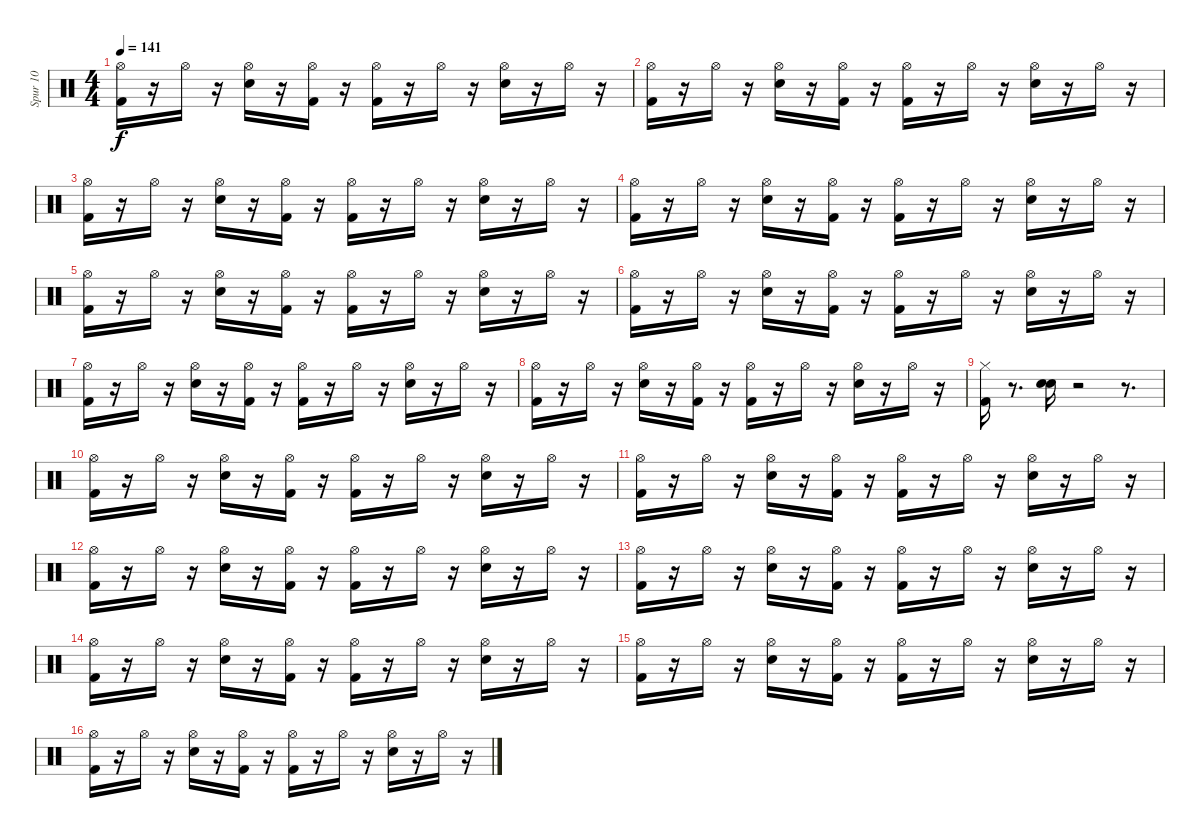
\track ("Spur 10" "Spur 10") {instrument percussion}
\staff {score}
\articulation defaults
\ts (4 4)
\tempo 141
\clef neutral
\ks c
("Kick (hit) 2" "Hi-Hat (open)").16{dy f} r.16 "Hi-Hat (open)".16 r.16 ("Snare (hit) 2" "Hi-Hat (open)").16 r.16 ("Kick (hit) 2" "Hi-Hat (open)").16 r.16 ("Kick (hit) 2" "Hi-Hat (open)").16 r.16 "Hi-Hat (open)".16 r.16 ("Snare (hit) 2" "Hi-Hat (open)").16 r.16 "Hi-Hat (open)".16 r.16 |
("Kick (hit) 2" "Hi-Hat (open)").16 r.16 "Hi-Hat (open)".16 r.16 ("Snare (hit) 2" "Hi-Hat (open)").16 r.16 ("Kick (hit) 2" "Hi-Hat (open)").16 r.16 ("Kick (hit) 2" "Hi-Hat (open)").16 r.16 "Hi-Hat (open)".16 r.16 ("Snare (hit) 2" "Hi-Hat (open)").16 r.16 "Hi-Hat (open)".16 r.16 |
("Kick (hit) 2" "Hi-Hat (open)").16 r.16 "Hi-Hat (open)".16 r.16 ("Snare (hit) 2" "Hi-Hat (open)").16 r.16 ("Kick (hit) 2" "Hi-Hat (open)").16 r.16 ("Kick (hit) 2" "Hi-Hat (open)").16 r.16 "Hi-Hat (open)".16 r.16 ("Snare (hit) 2" "Hi-Hat (open)").16 r.16 "Hi-Hat (open)".16 r.16 |
("Kick (hit) 2" "Hi-Hat (open)").16 r.16 "Hi-Hat (open)".16 r.16 ("Snare (hit) 2" "Hi-Hat (open)").16 r.16 ("Kick (hit) 2" "Hi-Hat (open)").16 r.16 ("Kick (hit) 2" "Hi-Hat (open)").16 r.16 "Hi-Hat (open)".16 r.16 ("Snare (hit) 2" "Hi-Hat (open)").16 r.16 "Hi-Hat (open)".16 r.16 |
("Kick (hit) 2" "Hi-Hat (open)").16 r.16 "Hi-Hat (open)".16 r.16 ("Snare (hit) 2" "Hi-Hat (open)").16 r.16 ("Kick (hit) 2" "Hi-Hat (open)").16 r.16 ("Kick (hit) 2" "Hi-Hat (open)").16 r.16 "Hi-Hat (open)".16 r.16 ("Snare (hit) 2" "Hi-Hat (open)").16 r.16 "Hi-Hat (open)".16 r.16 |
("Kick (hit) 2" "Hi-Hat (open)").16 r.16 "Hi-Hat (open)".16 r.16 ("Snare (hit) 2" "Hi-Hat (open)").16 r.16 ("Kick (hit) 2" "Hi-Hat (open)").16 r.16 ("Kick (hit) 2" "Hi-Hat (open)").16 r.16 "Hi-Hat (open)".16 r.16 ("Snare (hit) 2" "Hi-Hat (open)").16 r.16 "Hi-Hat (open)".16 r.16 |
("Kick (hit) 2" "Hi-Hat (open)").16 r.16 "Hi-Hat (open)".16 r.16 ("Snare (hit) 2" "Hi-Hat (open)").16 r.16 ("Kick (hit) 2" "Hi-Hat (open)").16 r.16 ("Kick (hit) 2" "Hi-Hat (open)").16 r.16 "Hi-Hat (open)".16 r.16 ("Snare (hit) 2" "Hi-Hat (open)").16 r.16 "Hi-Hat (open)".16 r.16 |
("Kick (hit) 2" "Hi-Hat (open)").16 r.16 "Hi-Hat (open)".16 r.16 ("Snare (hit) 2" "Hi-Hat (open)").16 r.16 ("Kick (hit) 2" "Hi-Hat (open)").16 r.16 ("Kick (hit) 2" "Hi-Hat (open)").16 r.16 "Hi-Hat (open)".16 r.16 ("Snare (hit) 2" "Hi-Hat (open)").16 r.16 "Hi-Hat (open)".16 r.16 |
("Hi-Hat (closed)" "Kick (hit) 2").16 r.8{d} ("Electric Snare (hit)" "Snare (hit) 2").16 r.2 r.8{d} |
("Hi-Hat (open)" "Kick (hit) 2").16 r.16 "Hi-Hat (open)".16 r.16 ("Hi-Hat (open)" "Snare (hit) 2").16 r.16 ("Hi-Hat (open)" "Kick (hit) 2").16 r.16 ("Hi-Hat (open)" "Kick (hit) 2").16 r.16 "Hi-Hat (open)".16 r.16 ("Hi-Hat (open)" "Snare (hit) 2").16 r.16 "Hi-Hat (open)".16 r.16 |
("Kick (hit) 2" "Hi-Hat (open)").16 r.16 "Hi-Hat (open)".16 r.16 ("Hi-Hat (open)" "Snare (hit) 2").16 r.16 ("Kick (hit) 2" "Hi-Hat (open)").16 r.16 ("Hi-Hat (open)" "Kick (hit) 2").16 r.16 "Hi-Hat (open)".16 r.16 ("Hi-Hat (open)" "Snare (hit) 2").16 r.16 "Hi-Hat (open)".16 r.16 |
("Hi-Hat (open)" "Kick (hit) 2").16 r.16 "Hi-Hat (open)".16 r.16 ("Hi-Hat (open)" "Snare (hit) 2").16 r.16 ("Hi-Hat (open)" "Kick (hit) 2").16 r.16 ("Hi-Hat (open)" "Kick (hit) 2").16 r.16 "Hi-Hat (open)".16 r.16 ("Hi-Hat (open)" "Snare (hit) 2").16 r.16 "Hi-Hat (open)".16 r.16 |
("Hi-Hat (open)" "Kick (hit) 2").16 r.16 "Hi-Hat (open)".16 r.16 ("Hi-Hat (open)" "Snare (hit) 2").16 r.16 ("Hi-Hat (open)" "Kick (hit) 2").16 r.16 ("Hi-Hat (open)" "Kick (hit) 2").16 r.16 "Hi-Hat (open)".16 r.16 ("Hi-Hat (open)" "Snare (hit) 2").16 r.16 "Hi-Hat (open)".16 r.16 |
("Kick (hit) 2" "Hi-Hat (open)").16 r.16 "Hi-Hat (open)".16 r.16 ("Snare (hit) 2" "Hi-Hat (open)").16 r.16 ("Kick (hit) 2" "Hi-Hat (open)").16 r.16 ("Kick (hit) 2" "Hi-Hat (open)").16 r.16 "Hi-Hat (open)".16 r.16 ("Snare (hit) 2" "Hi-Hat (open)").16 r.16 "Hi-Hat (open)".16 r.16 |
("Kick (hit) 2" "Hi-Hat (open)").16 r.16 "Hi-Hat (open)".16 r.16 ("Snare (hit) 2" "Hi-Hat (open)").16 r.16 ("Kick (hit) 2" "Hi-Hat (open)").16 r.16 ("Kick (hit) 2" "Hi-Hat (open)").16 r.16 "Hi-Hat (open)".16 r.16 ("Snare (hit) 2" "Hi-Hat (open)").16 r.16 "Hi-Hat (open)".16 r.16 |
("Kick (hit) 2" "Hi-Hat (open)").16 r.16 "Hi-Hat (open)".16 r.16 ("Snare (hit) 2" "Hi-Hat (open)").16 r.16 ("Kick (hit) 2" "Hi-Hat (open)").16 r.16 ("Kick (hit) 2" "Hi-Hat (open)").16 r.16 "Hi-Hat (open)".16 r.16 ("Snare (hit) 2" "Hi-Hat (open)").16 r.16 "Hi-Hat (open)".16 r.16
